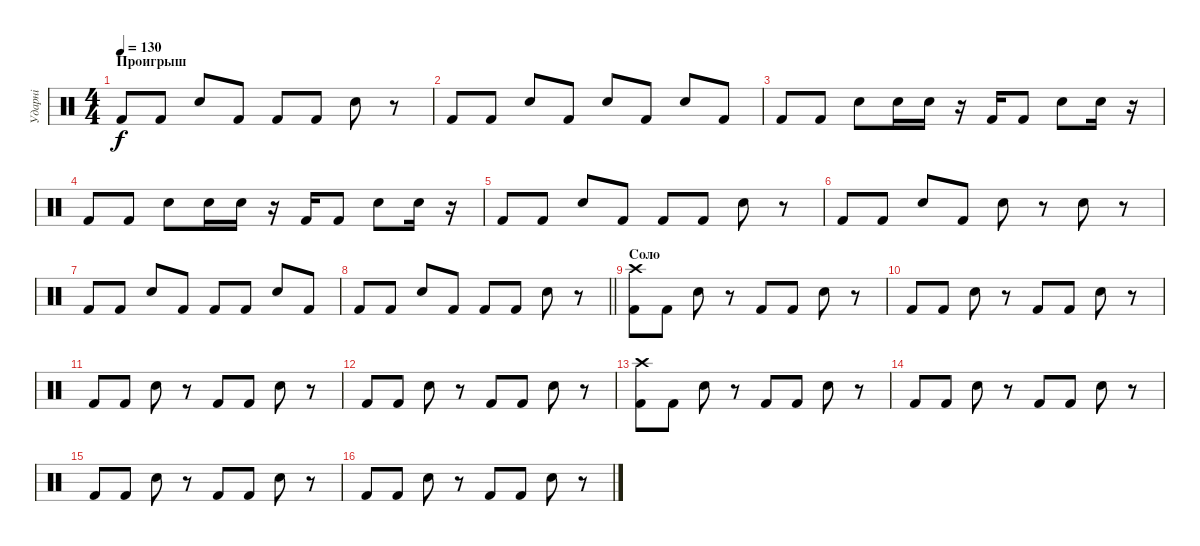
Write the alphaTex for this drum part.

\track ("Ударні" "Ударні") {instrument percussion}
\staff {score}
\articulation defaults
\ts (4 4)
\section ("" "Проигрыш")
\tempo 130
\clef neutral
\ks c "Kick (hit) 2".8{dy f} "Kick (hit) 2".8 "Snare (hit) 2".8 "Kick (hit) 2".8 "Kick (hit) 2".8 "Kick (hit) 2".8 "Snare (hit) 2".8
r.8 |
"Kick (hit) 2".8 "Kick (hit) 2".8 "Snare (hit) 2".8 "Kick (hit) 2".8 "Snare (hit) 2".8 "Kick (hit) 2".8 "Snare (hit) 2".8 "Kick (hit) 2".8 |
"Kick (hit) 2".8 "Kick (hit) 2".8 "Snare (hit) 2".8 "Snare (hit) 2".16 "Snare (hit) 2".16 r.16 "Kick (hit) 2".16 "Kick (hit) 2".8 "Snare (hit) 2".8 "Snare (hit) 2".16 r.16 |
"Kick (hit) 2".8 "Kick (hit) 2".8 "Snare (hit) 2".8 "Snare (hit) 2".16 "Snare (hit) 2".16 r.16 "Kick (hit) 2".16 "Kick (hit) 2".8 "Snare (hit) 2".8 "Snare (hit) 2".16 r.16 |
"Kick (hit) 2".8 "Kick (hit) 2".8 "Snare (hit) 2".8 "Kick (hit) 2".8 "Kick (hit) 2".8 "Kick (hit) 2".8 "Snare (hit) 2".8 r.8 |
"Kick (hit) 2".8 "Kick (hit) 2".8 "Snare (hit) 2".8 "Kick (hit) 2".8 "Snare (hit) 2".8 r.8 "Snare (hit) 2".8 r.8 |
"Kick (hit) 2".8 "Kick (hit) 2".8 "Snare (hit) 2".8 "Kick (hit) 2".8 "Kick (hit) 2".8 "Kick (hit) 2".8 "Snare (hit) 2".8 "Kick (hit) 2".8 |
\barLineRight lightlight "Kick (hit) 2".8 "Kick (hit) 2".8 "Snare (hit) 2".8 "Kick (hit) 2".8 "Kick (hit) 2".8 "Kick (hit) 2".8 "Snare (hit) 2".8
r.8 |
\section ("" "Соло")
("Kick (hit) 2" "Crash high (hit)").8 "Kick (hit) 2".8 "Snare (hit) 2".8 r.8 "Kick (hit) 2".8 "Kick (hit) 2".8 "Snare (hit) 2".8 r.8 |
"Kick (hit) 2".8 "Kick (hit) 2".8 "Snare (hit) 2".8 r.8 "Kick (hit) 2".8 "Kick (hit) 2".8 "Snare (hit) 2".8 r.8 |
"Kick (hit) 2".8 "Kick (hit) 2".8 "Snare (hit) 2".8 r.8 "Kick (hit) 2".8 "Kick (hit) 2".8 "Snare (hit) 2".8 r.8 |
"Kick (hit) 2".8 "Kick (hit) 2".8 "Snare (hit) 2".8 r.8 "Kick (hit) 2".8 "Kick (hit) 2".8 "Snare (hit) 2".8 r.8 |
("Kick (hit) 2" "Crash high (hit)").8 "Kick (hit) 2".8 "Snare (hit) 2".8 r.8 "Kick (hit) 2".8 "Kick (hit) 2".8 "Snare (hit) 2".8 r.8 |
"Kick (hit) 2".8 "Kick (hit) 2".8 "Snare (hit) 2".8 r.8 "Kick (hit) 2".8 "Kick (hit) 2".8 "Snare (hit) 2".8 r.8 |
"Kick (hit) 2".8 "Kick (hit) 2".8 "Snare (hit) 2".8 r.8 "Kick (hit) 2".8 "Kick (hit) 2".8 "Snare (hit) 2".8 r.8 |
"Kick (hit) 2".8 "Kick (hit) 2".8 "Snare (hit) 2".8 r.8 "Kick (hit) 2".8 "Kick (hit) 2".8 "Snare (hit) 2".8 r.8
